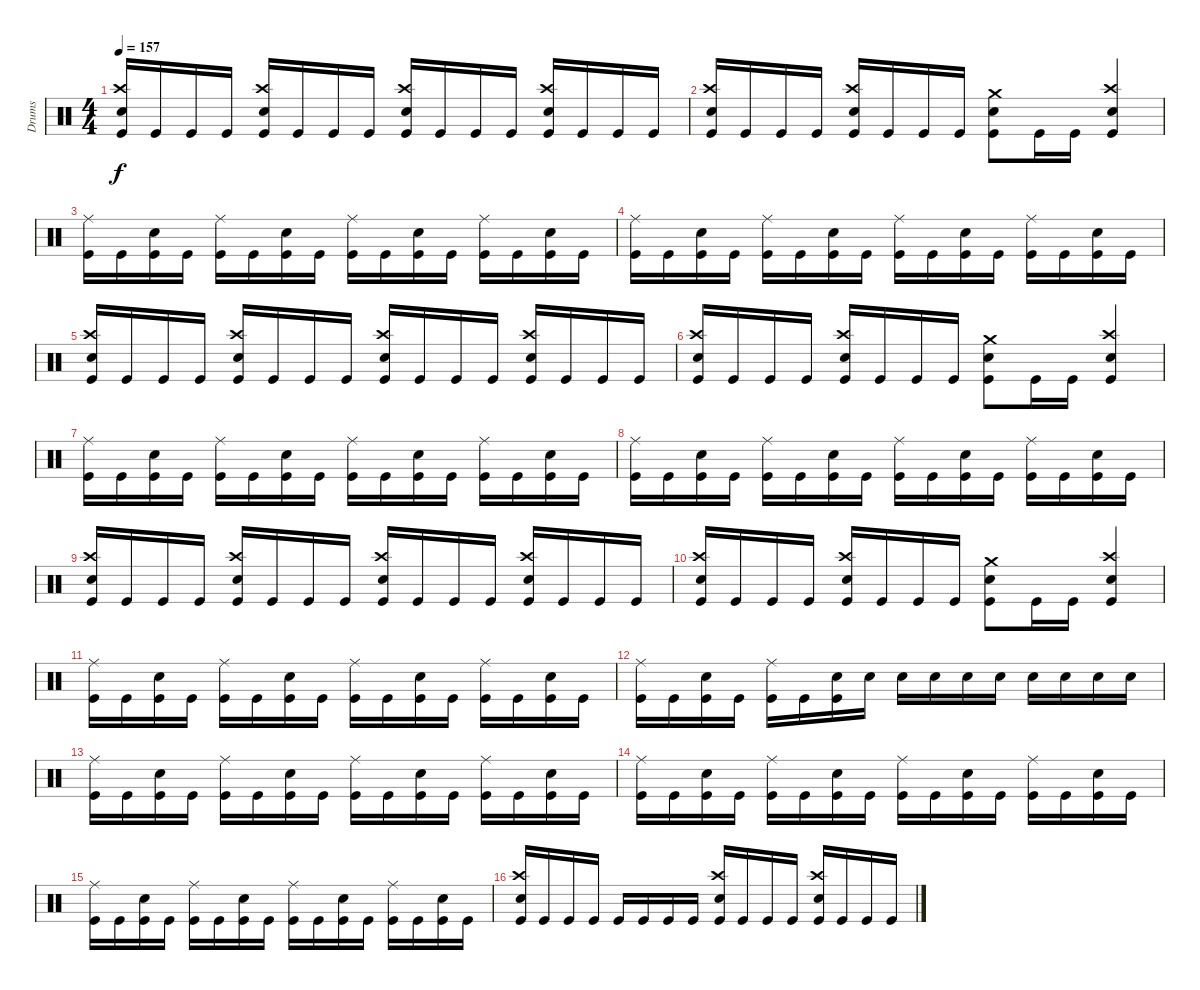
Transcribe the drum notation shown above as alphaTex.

\track ("Drums" "Drums") {instrument percussion}
\staff {score}
\articulation defaults
\ts (4 4)
\tempo 157
\clef neutral
\ks c
("Snare (hit) 2" "Crash high (hit)" "Kick (hit)").16{dy f} "Kick (hit)".16 "Kick (hit)".16 "Kick (hit)".16 ("Snare (hit) 2" "Crash high (hit)" "Kick (hit)").16 "Kick (hit)".16 "Kick (hit)".16 "Kick (hit)".16 ("Snare (hit) 2" "Crash high (hit)" "Kick (hit)").16 "Kick (hit)".16 "Kick (hit)".16 "Kick (hit)".16 ("Snare (hit) 2" "Crash high (hit)" "Kick (hit)").16 "Kick (hit)".16 "Kick (hit)".16 "Kick (hit)".16 |
("Snare (hit) 2" "Crash high (hit)" "Kick (hit)").16 "Kick (hit)".16 "Kick (hit)".16 "Kick (hit)".16 ("Snare (hit) 2" "Crash high (hit)" "Kick (hit)").16 "Kick (hit)".16 "Kick (hit)".16 "Kick (hit)".16 ("Snare (hit) 2" "Crash medium (hit)" "Kick (hit)").8 "Kick (hit)".16 "Kick (hit)".16 ("Snare (hit) 2" "Crash high (hit)" "Kick (hit)").4 |
("Ride (middle)" "Kick (hit)").16 "Kick (hit)".16 ("Snare (hit) 2" "Kick (hit)").16 "Kick (hit)".16 ("Ride (middle)" "Kick (hit)").16 "Kick (hit)".16 ("Snare (hit) 2" "Kick (hit)").16 "Kick (hit)".16 ("Ride (middle)" "Kick (hit)").16 "Kick (hit)".16 ("Snare (hit) 2" "Kick (hit)").16 "Kick (hit)".16 ("Ride (middle)" "Kick (hit)").16 "Kick (hit)".16 ("Snare (hit) 2" "Kick (hit)").16 "Kick (hit)".16 |
("Ride (middle)" "Kick (hit)").16 "Kick (hit)".16 ("Snare (hit) 2" "Kick (hit)").16 "Kick (hit)".16 ("Ride (middle)" "Kick (hit)").16 "Kick (hit)".16 ("Snare (hit) 2" "Kick (hit)").16 "Kick (hit)".16 ("Ride (middle)" "Kick (hit)").16 "Kick (hit)".16 ("Snare (hit) 2" "Kick (hit)").16 "Kick (hit)".16 ("Ride (middle)" "Kick (hit)").16 "Kick (hit)".16 ("Snare (hit) 2" "Kick (hit)").16 "Kick (hit)".16 |
("Snare (hit) 2" "Crash high (hit)" "Kick (hit)").16 "Kick (hit)".16 "Kick (hit)".16 "Kick (hit)".16 ("Snare (hit) 2" "Crash high (hit)" "Kick (hit)").16 "Kick (hit)".16 "Kick (hit)".16 "Kick (hit)".16 ("Snare (hit) 2" "Crash high (hit)" "Kick (hit)").16 "Kick (hit)".16 "Kick (hit)".16 "Kick (hit)".16 ("Snare (hit) 2" "Crash high (hit)" "Kick (hit)").16 "Kick (hit)".16 "Kick (hit)".16 "Kick (hit)".16 |
("Snare (hit) 2" "Crash high (hit)" "Kick (hit)").16 "Kick (hit)".16 "Kick (hit)".16 "Kick (hit)".16 ("Snare (hit) 2" "Crash high (hit)" "Kick (hit)").16 "Kick (hit)".16 "Kick (hit)".16 "Kick (hit)".16 ("Snare (hit) 2" "Crash medium (hit)" "Kick (hit)").8 "Kick (hit)".16 "Kick (hit)".16 ("Snare (hit) 2" "Crash high (hit)" "Kick (hit)").4 |
("Ride (middle)" "Kick (hit)").16 "Kick (hit)".16 ("Snare (hit) 2" "Kick (hit)").16 "Kick (hit)".16 ("Ride (middle)" "Kick (hit)").16 "Kick (hit)".16 ("Snare (hit) 2" "Kick (hit)").16 "Kick (hit)".16 ("Ride (middle)" "Kick (hit)").16 "Kick (hit)".16 ("Snare (hit) 2" "Kick (hit)").16 "Kick (hit)".16 ("Ride (middle)" "Kick (hit)").16 "Kick (hit)".16 ("Snare (hit) 2" "Kick (hit)").16 "Kick (hit)".16 |
("Ride (middle)" "Kick (hit)").16 "Kick (hit)".16 ("Snare (hit) 2" "Kick (hit)").16 "Kick (hit)".16 ("Ride (middle)" "Kick (hit)").16 "Kick (hit)".16 ("Snare (hit) 2" "Kick (hit)").16 "Kick (hit)".16 ("Ride (middle)" "Kick (hit)").16 "Kick (hit)".16 ("Snare (hit) 2" "Kick (hit)").16 "Kick (hit)".16 ("Ride (middle)" "Kick (hit)").16 "Kick (hit)".16 ("Snare (hit) 2" "Kick (hit)").16 "Kick (hit)".16 |
("Snare (hit) 2" "Crash high (hit)" "Kick (hit)").16 "Kick (hit)".16 "Kick (hit)".16 "Kick (hit)".16 ("Snare (hit) 2" "Crash high (hit)" "Kick (hit)").16 "Kick (hit)".16 "Kick (hit)".16 "Kick (hit)".16 ("Snare (hit) 2" "Crash high (hit)" "Kick (hit)").16 "Kick (hit)".16 "Kick (hit)".16 "Kick (hit)".16 ("Snare (hit) 2" "Crash high (hit)" "Kick (hit)").16 "Kick (hit)".16 "Kick (hit)".16 "Kick (hit)".16 |
("Snare (hit) 2" "Crash high (hit)" "Kick (hit)").16 "Kick (hit)".16 "Kick (hit)".16 "Kick (hit)".16 ("Snare (hit) 2" "Crash high (hit)" "Kick (hit)").16 "Kick (hit)".16 "Kick (hit)".16 "Kick (hit)".16 ("Snare (hit) 2" "Crash medium (hit)" "Kick (hit)").8 "Kick (hit)".16 "Kick (hit)".16 ("Snare (hit) 2" "Crash high (hit)" "Kick (hit)").4 |
("Ride (middle)" "Kick (hit)").16 "Kick (hit)".16 ("Snare (hit) 2" "Kick (hit)").16 "Kick (hit)".16 ("Ride (middle)" "Kick (hit)").16 "Kick (hit)".16 ("Snare (hit) 2" "Kick (hit)").16 "Kick (hit)".16 ("Ride (middle)" "Kick (hit)").16 "Kick (hit)".16 ("Snare (hit) 2" "Kick (hit)").16 "Kick (hit)".16 ("Ride (middle)" "Kick (hit)").16 "Kick (hit)".16 ("Snare (hit) 2" "Kick (hit)").16 "Kick (hit)".16 |
("Ride (middle)" "Kick (hit)").16 "Kick (hit)".16 ("Snare (hit) 2" "Kick (hit)").16 "Kick (hit)".16 ("Ride (middle)" "Kick (hit)").16 "Kick (hit)".16 ("Snare (hit) 2" "Kick (hit)").16 "Snare (hit) 2".16 "Snare (hit) 2".16 "Snare (hit) 2".16 "Snare (hit) 2".16 "Snare (hit) 2".16 "Snare (hit) 2".16 "Snare (hit) 2".16 "Snare (hit) 2".16 "Snare (hit) 2".16 |
("Ride (middle)" "Kick (hit)").16 "Kick (hit)".16 ("Snare (hit) 2" "Kick (hit)").16 "Kick (hit)".16 ("Ride (middle)" "Kick (hit)").16 "Kick (hit)".16 ("Snare (hit) 2" "Kick (hit)").16 "Kick (hit)".16 ("Ride (middle)" "Kick (hit)").16 "Kick (hit)".16 ("Snare (hit) 2" "Kick (hit)").16 "Kick (hit)".16 ("Ride (middle)" "Kick (hit)").16 "Kick (hit)".16 ("Snare (hit) 2" "Kick (hit)").16 "Kick (hit)".16 |
("Ride (middle)" "Kick (hit)").16 "Kick (hit)".16 ("Snare (hit) 2" "Kick (hit)").16 "Kick (hit)".16 ("Ride (middle)" "Kick (hit)").16 "Kick (hit)".16 ("Snare (hit) 2" "Kick (hit)").16 "Kick (hit)".16 ("Ride (middle)" "Kick (hit)").16 "Kick (hit)".16 ("Snare (hit) 2" "Kick (hit)").16 "Kick (hit)".16 ("Ride (middle)" "Kick (hit)").16 "Kick (hit)".16 ("Snare (hit) 2" "Kick (hit)").16 "Kick (hit)".16 |
("Ride (middle)" "Kick (hit)").16 "Kick (hit)".16 ("Snare (hit) 2" "Kick (hit)").16 "Kick (hit)".16 ("Ride (middle)" "Kick (hit)").16 "Kick (hit)".16 ("Snare (hit) 2" "Kick (hit)").16 "Kick (hit)".16 ("Ride (middle)" "Kick (hit)").16 "Kick (hit)".16 ("Snare (hit) 2" "Kick (hit)").16 "Kick (hit)".16 ("Ride (middle)" "Kick (hit)").16 "Kick (hit)".16 ("Snare (hit) 2" "Kick (hit)").16 "Kick (hit)".16 |
("Snare (hit) 2" "Crash high (hit)" "Kick (hit)").16 "Kick (hit)".16 "Kick (hit)".16 "Kick (hit)".16 "Kick (hit)".16 "Kick (hit)".16 "Kick (hit)".16 "Kick (hit)".16 ("Snare (hit) 2" "Crash high (hit)" "Kick (hit)").16 "Kick (hit)".16 "Kick (hit)".16 "Kick (hit)".16 ("Snare (hit) 2" "Crash high (hit)" "Kick (hit)").16 "Kick (hit)".16 "Kick (hit)".16 "Kick (hit)".16
